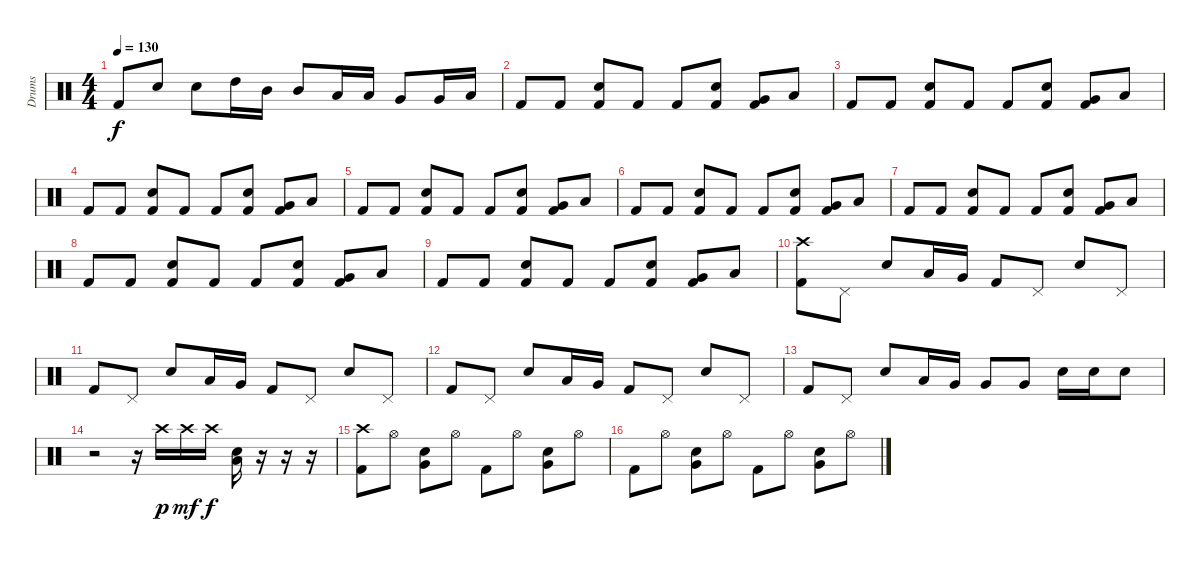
\track ("Drums" "Drums") {instrument percussion}
\staff {score}
\articulation defaults
\ts (4 4)
\tempo 130
\clef neutral
\ks c "Kick (hit) 2".8{dy f} "Electric Snare (hit)".8 "Electric Snare (hit)".8 "High Tom (hit)".16 "Mid Tom (hit)".16 "Mid Tom (hit)".8 "Low Tom (hit)".16 "Low Tom (hit)".16 "Very Low Tom (hit)".8 "Very Low Tom (hit)".16 "Low Floor Tom (hit)".16
|
"Kick (hit) 2".8 "Kick (hit) 2".8 ("Kick (hit) 2" "Electric Snare (hit)").8 "Kick (hit) 2".8 "Kick (hit) 2".8 ("Kick (hit) 2" "Electric Snare (hit)").8 ("Kick (hit) 2" "Very Low Tom (hit)").8 "Low Floor Tom (hit)".8 |
"Kick (hit) 2".8 "Kick (hit) 2".8 ("Kick (hit) 2" "Electric Snare (hit)").8 "Kick (hit) 2".8 "Kick (hit) 2".8 ("Kick (hit) 2" "Electric Snare (hit)").8 ("Kick (hit) 2" "Very Low Tom (hit)").8 "Low Floor Tom (hit)".8 |
"Kick (hit) 2".8 "Kick (hit) 2".8 ("Kick (hit) 2" "Electric Snare (hit)").8 "Kick (hit) 2".8 "Kick (hit) 2".8 ("Kick (hit) 2" "Electric Snare (hit)").8 ("Kick (hit) 2" "Very Low Tom (hit)").8 "Low Floor Tom (hit)".8 |
"Kick (hit) 2".8 "Kick (hit) 2".8 ("Kick (hit) 2" "Electric Snare (hit)").8 "Kick (hit) 2".8 "Kick (hit) 2".8 ("Kick (hit) 2" "Electric Snare (hit)").8 ("Kick (hit) 2" "Very Low Tom (hit)").8 "Low Floor Tom (hit)".8 |
"Kick (hit) 2".8 "Kick (hit) 2".8 ("Kick (hit) 2" "Electric Snare (hit)").8 "Kick (hit) 2".8 "Kick (hit) 2".8 ("Kick (hit) 2" "Electric Snare (hit)").8 ("Kick (hit) 2" "Very Low Tom (hit)").8 "Low Floor Tom (hit)".8 |
"Kick (hit) 2".8 "Kick (hit) 2".8 ("Kick (hit) 2" "Electric Snare (hit)").8 "Kick (hit) 2".8 "Kick (hit) 2".8 ("Kick (hit) 2" "Electric Snare (hit)").8 ("Kick (hit) 2" "Very Low Tom (hit)").8 "Low Floor Tom (hit)".8 |
"Kick (hit) 2".8 "Kick (hit) 2".8 ("Kick (hit) 2" "Electric Snare (hit)").8 "Kick (hit) 2".8 "Kick (hit) 2".8 ("Kick (hit) 2" "Electric Snare (hit)").8 ("Kick (hit) 2" "Very Low Tom (hit)").8 "Low Floor Tom (hit)".8 |
"Kick (hit) 2".8 "Kick (hit) 2".8 ("Kick (hit) 2" "Electric Snare (hit)").8 "Kick (hit) 2".8 "Kick (hit) 2".8 ("Kick (hit) 2" "Electric Snare (hit)").8 ("Kick (hit) 2" "Very Low Tom (hit)").8 "Low Floor Tom (hit)".8 |
("Kick (hit) 2" "Crash high (hit)").8 "Pedal Hi-Hat (hit)".8 "Electric Snare (hit)".8 "Low Tom (hit)".16 "Very Low Tom (hit)".16 "Kick (hit) 2".8 "Pedal Hi-Hat (hit)".8 "Electric Snare (hit)".8 "Pedal Hi-Hat (hit)".8 |
"Kick (hit) 2".8 "Pedal Hi-Hat (hit)".8 "Electric Snare (hit)".8 "Low Tom (hit)".16 "Very Low Tom (hit)".16 "Kick (hit) 2".8 "Pedal Hi-Hat (hit)".8 "Electric Snare (hit)".8 "Pedal Hi-Hat (hit)".8 |
"Kick (hit) 2".8 "Pedal Hi-Hat (hit)".8 "Electric Snare (hit)".8 "Low Tom (hit)".16 "Very Low Tom (hit)".16 "Kick (hit) 2".8 "Pedal Hi-Hat (hit)".8 "Electric Snare (hit)".8 "Pedal Hi-Hat (hit)".8 |
"Kick (hit) 2".8 "Pedal Hi-Hat (hit)".8 "Electric Snare (hit)".8 "Low Tom (hit)".16 "Very Low Tom (hit)".16 "Very Low Tom (hit)".8 "Very Low Tom (hit)".8 "Electric Snare (hit)".16 "Electric Snare (hit)".16 "Electric Snare (hit)".8 |
r.2 r.16 "Crash high (hit)".16{dy p} "Crash high (hit)".16{dy mf} "Crash high (hit)".16{dy f} ("Low Tom (hit)" "Electric Snare (hit)").16 r.16 r.16 r.16 |
("Kick (hit) 2" "Crash high (hit)").8 "Hi-Hat (open)".8 ("Snare (hit) 2" "Very Low Tom (hit)").8 "Hi-Hat (open)".8 "Kick (hit) 2".8 "Hi-Hat (open)".8 ("Snare (hit) 2" "Very Low Tom (hit)").8 "Hi-Hat (open)".8 |
"Kick (hit) 2".8 "Hi-Hat (open)".8 ("Snare (hit) 2" "Very Low Tom (hit)").8 "Hi-Hat (open)".8 "Kick (hit) 2".8 "Hi-Hat (open)".8 ("Snare (hit) 2" "Very Low Tom (hit)").8 "Hi-Hat (open)".8
